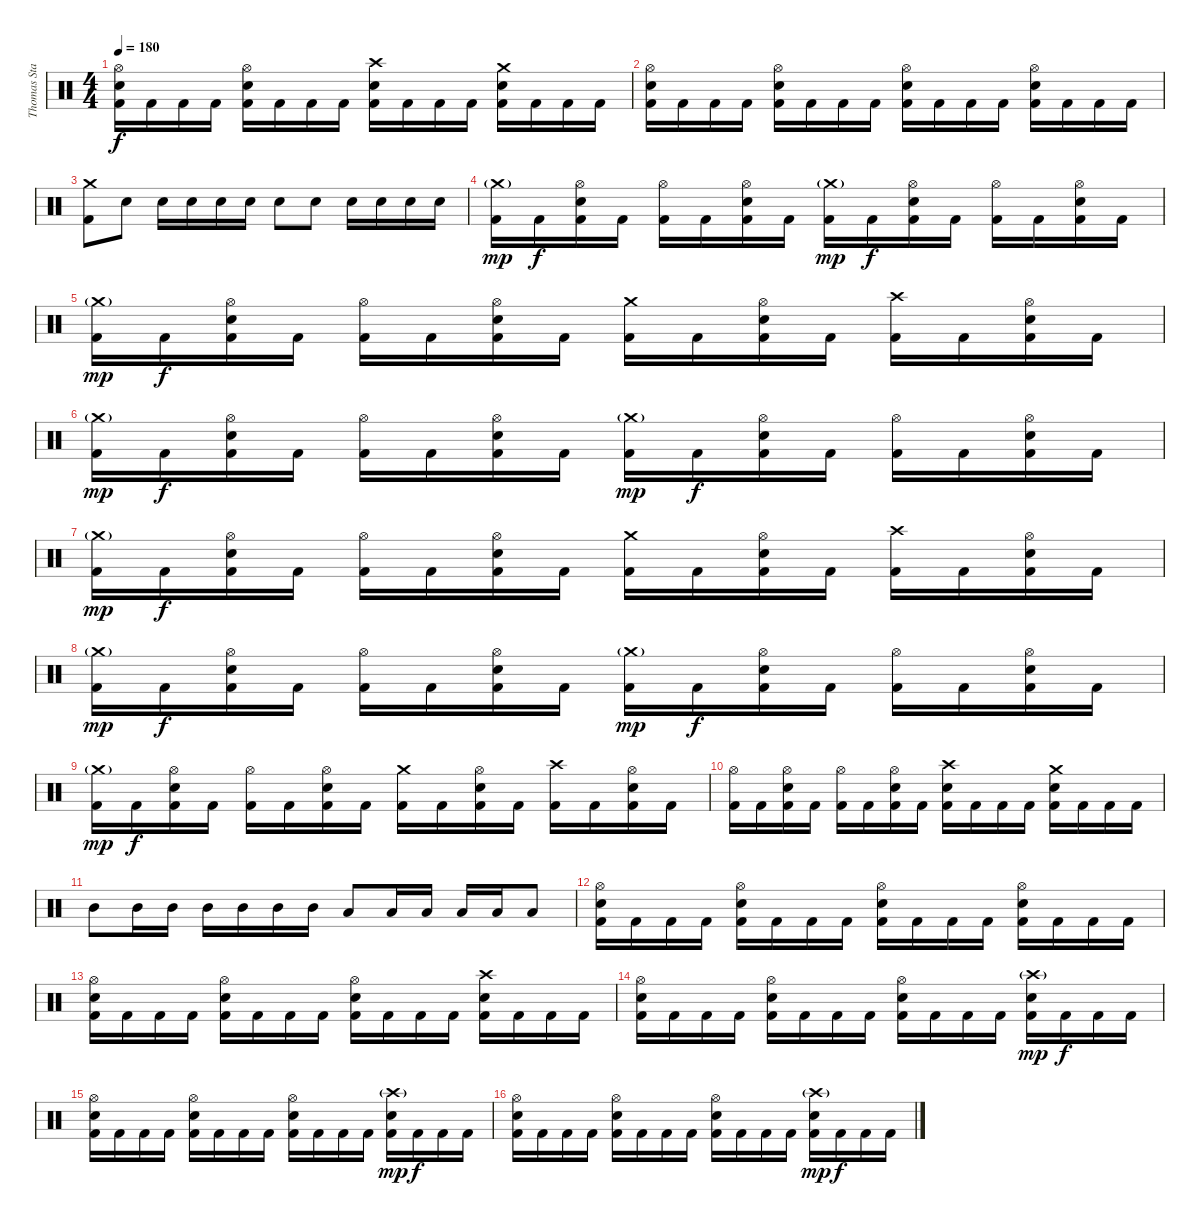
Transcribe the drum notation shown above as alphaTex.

\track ("Thomas Stauch" "Thomas Sta") {instrument percussion}
\staff {score}
\articulation defaults
\ts (4 4)
\tempo 180
\clef neutral
\ks c
("Hi-Hat (open)" "Electric Snare (hit)" "Kick (hit) 2").16{dy f} "Kick (hit) 2".16 "Kick (hit) 2".16 "Kick (hit) 2".16 ("Hi-Hat (open)" "Electric Snare (hit)" "Kick (hit) 2").16 "Kick (hit) 2".16 "Kick (hit) 2".16 "Kick (hit) 2".16 ("Crash high (hit)" "Electric Snare (hit)" "Kick (hit) 2").16 "Kick (hit) 2".16 "Kick (hit) 2".16 "Kick (hit) 2".16 ("Crash medium (hit)" "Electric Snare (hit)" "Kick (hit) 2").16 "Kick (hit) 2".16 "Kick (hit) 2".16 "Kick (hit) 2".16 |
("Hi-Hat (open)" "Electric Snare (hit)" "Kick (hit) 2").16 "Kick (hit) 2".16 "Kick (hit) 2".16 "Kick (hit) 2".16 ("Hi-Hat (open)" "Electric Snare (hit)" "Kick (hit) 2").16 "Kick (hit) 2".16 "Kick (hit) 2".16 "Kick (hit) 2".16 ("Hi-Hat (open)" "Electric Snare (hit)" "Kick (hit) 2").16 "Kick (hit) 2".16 "Kick (hit) 2".16 "Kick (hit) 2".16 ("Hi-Hat (open)" "Electric Snare (hit)" "Kick (hit) 2").16 "Kick (hit) 2".16 "Kick (hit) 2".16 "Kick (hit) 2".16 |
("Crash medium (hit)" "Kick (hit) 2").8 "Electric Snare (hit)".8 "Electric Snare (hit)".16 "Electric Snare (hit)".16 "Electric Snare (hit)".16 "Electric Snare (hit)".16 "Electric Snare (hit)".8 "Electric Snare (hit)".8 "Electric Snare (hit)".16 "Electric Snare (hit)".16 "Electric Snare (hit)".16 "Electric Snare (hit)".16 |
("Crash medium (hit)"{g} "Kick (hit) 2").16{dy mp} "Kick (hit) 2".16{dy f} ("Hi-Hat (open)" "Electric Snare (hit)" "Kick (hit) 2").16 "Kick (hit) 2".16 ("Hi-Hat (open)" "Kick (hit) 2").16 "Kick (hit) 2".16 ("Hi-Hat (open)" "Electric Snare (hit)" "Kick (hit) 2").16 "Kick (hit) 2".16 ("Crash medium (hit)"{g} "Kick (hit) 2").16{dy mp} "Kick (hit) 2".16{dy f} ("Hi-Hat (open)" "Electric Snare (hit)" "Kick (hit) 2").16 "Kick (hit) 2".16 ("Hi-Hat (open)" "Kick (hit) 2").16 "Kick (hit) 2".16 ("Hi-Hat (open)" "Electric Snare (hit)" "Kick (hit) 2").16 "Kick (hit) 2".16 |
("Crash medium (hit)"{g} "Kick (hit) 2").16{dy mp} "Kick (hit) 2".16{dy f} ("Hi-Hat (open)" "Electric Snare (hit)" "Kick (hit) 2").16 "Kick (hit) 2".16 ("Hi-Hat (open)" "Kick (hit) 2").16 "Kick (hit) 2".16 ("Hi-Hat (open)" "Electric Snare (hit)" "Kick (hit) 2").16 "Kick (hit) 2".16 ("Crash medium (hit)" "Kick (hit) 2").16 "Kick (hit) 2".16 ("Hi-Hat (open)" "Electric Snare (hit)" "Kick (hit) 2").16 "Kick (hit) 2".16 ("Crash high (hit)" "Kick (hit) 2").16 "Kick (hit) 2".16 ("Hi-Hat (open)" "Electric Snare (hit)" "Kick (hit) 2").16 "Kick (hit) 2".16 |
("Crash medium (hit)"{g} "Kick (hit) 2").16{dy mp} "Kick (hit) 2".16{dy f} ("Hi-Hat (open)" "Electric Snare (hit)" "Kick (hit) 2").16 "Kick (hit) 2".16 ("Hi-Hat (open)" "Kick (hit) 2").16 "Kick (hit) 2".16 ("Hi-Hat (open)" "Electric Snare (hit)" "Kick (hit) 2").16 "Kick (hit) 2".16 ("Crash medium (hit)"{g} "Kick (hit) 2").16{dy mp} "Kick (hit) 2".16{dy f} ("Hi-Hat (open)" "Electric Snare (hit)" "Kick (hit) 2").16 "Kick (hit) 2".16 ("Hi-Hat (open)" "Kick (hit) 2").16 "Kick (hit) 2".16 ("Hi-Hat (open)" "Electric Snare (hit)" "Kick (hit) 2").16 "Kick (hit) 2".16 |
("Crash medium (hit)"{g} "Kick (hit) 2").16{dy mp} "Kick (hit) 2".16{dy f} ("Hi-Hat (open)" "Electric Snare (hit)" "Kick (hit) 2").16 "Kick (hit) 2".16 ("Hi-Hat (open)" "Kick (hit) 2").16 "Kick (hit) 2".16 ("Hi-Hat (open)" "Electric Snare (hit)" "Kick (hit) 2").16 "Kick (hit) 2".16 ("Crash medium (hit)" "Kick (hit) 2").16 "Kick (hit) 2".16 ("Hi-Hat (open)" "Electric Snare (hit)" "Kick (hit) 2").16 "Kick (hit) 2".16 ("Crash high (hit)" "Kick (hit) 2").16 "Kick (hit) 2".16 ("Hi-Hat (open)" "Electric Snare (hit)" "Kick (hit) 2").16 "Kick (hit) 2".16 |
("Crash medium (hit)"{g} "Kick (hit) 2").16{dy mp} "Kick (hit) 2".16{dy f} ("Hi-Hat (open)" "Electric Snare (hit)" "Kick (hit) 2").16 "Kick (hit) 2".16 ("Hi-Hat (open)" "Kick (hit) 2").16 "Kick (hit) 2".16 ("Hi-Hat (open)" "Electric Snare (hit)" "Kick (hit) 2").16 "Kick (hit) 2".16 ("Crash medium (hit)"{g} "Kick (hit) 2").16{dy mp} "Kick (hit) 2".16{dy f} ("Hi-Hat (open)" "Electric Snare (hit)" "Kick (hit) 2").16 "Kick (hit) 2".16 ("Hi-Hat (open)" "Kick (hit) 2").16 "Kick (hit) 2".16 ("Hi-Hat (open)" "Electric Snare (hit)" "Kick (hit) 2").16 "Kick (hit) 2".16 |
("Crash medium (hit)"{g} "Kick (hit) 2").16{dy mp} "Kick (hit) 2".16{dy f} ("Hi-Hat (open)" "Electric Snare (hit)" "Kick (hit) 2").16 "Kick (hit) 2".16 ("Hi-Hat (open)" "Kick (hit) 2").16 "Kick (hit) 2".16 ("Hi-Hat (open)" "Electric Snare (hit)" "Kick (hit) 2").16 "Kick (hit) 2".16 ("Crash medium (hit)" "Kick (hit) 2").16 "Kick (hit) 2".16 ("Hi-Hat (open)" "Electric Snare (hit)" "Kick (hit) 2").16 "Kick (hit) 2".16 ("Crash high (hit)" "Kick (hit) 2").16 "Kick (hit) 2".16 ("Hi-Hat (open)" "Electric Snare (hit)" "Kick (hit) 2").16 "Kick (hit) 2".16 |
("Hi-Hat (open)" "Kick (hit) 2").16 "Kick (hit) 2".16 ("Hi-Hat (open)" "Electric Snare (hit)" "Kick (hit) 2").16 "Kick (hit) 2".16 ("Hi-Hat (open)" "Kick (hit) 2").16 "Kick (hit) 2".16 ("Hi-Hat (open)" "Electric Snare (hit)" "Kick (hit) 2").16 "Kick (hit) 2".16 ("Crash high (hit)" "Electric Snare (hit)" "Kick (hit) 2").16 "Kick (hit) 2".16 "Kick (hit) 2".16 "Kick (hit) 2".16 ("Crash medium (hit)" "Electric Snare (hit)" "Kick (hit) 2").16 "Kick (hit) 2".16 "Kick (hit) 2".16 "Kick (hit) 2".16 |
"Mid Tom (hit)".8 "Mid Tom (hit)".16 "Mid Tom (hit)".16 "Mid Tom (hit)".16 "Mid Tom (hit)".16 "Mid Tom (hit)".16 "Mid Tom (hit)".16 "Low Tom (hit)".8 "Low Tom (hit)".16 "Low Tom (hit)".16 "Low Tom (hit)".16 "Low Tom (hit)".16 "Low Tom (hit)".8 |
("Hi-Hat (open)" "Electric Snare (hit)" "Kick (hit) 2").16 "Kick (hit) 2".16 "Kick (hit) 2".16 "Kick (hit) 2".16 ("Hi-Hat (open)" "Electric Snare (hit)" "Kick (hit) 2").16 "Kick (hit) 2".16 "Kick (hit) 2".16 "Kick (hit) 2".16 ("Hi-Hat (open)" "Electric Snare (hit)" "Kick (hit) 2").16 "Kick (hit) 2".16 "Kick (hit) 2".16 "Kick (hit) 2".16 ("Hi-Hat (open)" "Electric Snare (hit)" "Kick (hit) 2").16 "Kick (hit) 2".16 "Kick (hit) 2".16 "Kick (hit) 2".16 |
("Hi-Hat (open)" "Electric Snare (hit)" "Kick (hit) 2").16 "Kick (hit) 2".16 "Kick (hit) 2".16 "Kick (hit) 2".16 ("Hi-Hat (open)" "Electric Snare (hit)" "Kick (hit) 2").16 "Kick (hit) 2".16 "Kick (hit) 2".16 "Kick (hit) 2".16 ("Hi-Hat (open)" "Electric Snare (hit)" "Kick (hit) 2").16 "Kick (hit) 2".16 "Kick (hit) 2".16 "Kick (hit) 2".16 ("Crash high (hit)" "Electric Snare (hit)" "Kick (hit) 2").16 "Kick (hit) 2".16 "Kick (hit) 2".16 "Kick (hit) 2".16 |
("Hi-Hat (open)" "Electric Snare (hit)" "Kick (hit) 2").16 "Kick (hit) 2".16 "Kick (hit) 2".16 "Kick (hit) 2".16 ("Hi-Hat (open)" "Electric Snare (hit)" "Kick (hit) 2").16 "Kick (hit) 2".16 "Kick (hit) 2".16 "Kick (hit) 2".16 ("Hi-Hat (open)" "Electric Snare (hit)" "Kick (hit) 2").16 "Kick (hit) 2".16 "Kick (hit) 2".16 "Kick (hit) 2".16 ("Crash high (hit)"{g} "Electric Snare (hit)" "Kick (hit) 2").16{dy mp} "Kick (hit) 2".16{dy f} "Kick (hit) 2".16 "Kick (hit) 2".16 |
("Hi-Hat (open)" "Electric Snare (hit)" "Kick (hit) 2").16 "Kick (hit) 2".16 "Kick (hit) 2".16 "Kick (hit) 2".16 ("Hi-Hat (open)" "Electric Snare (hit)" "Kick (hit) 2").16 "Kick (hit) 2".16 "Kick (hit) 2".16 "Kick (hit) 2".16 ("Hi-Hat (open)" "Electric Snare (hit)" "Kick (hit) 2").16 "Kick (hit) 2".16 "Kick (hit) 2".16 "Kick (hit) 2".16 ("Crash high (hit)"{g} "Electric Snare (hit)" "Kick (hit) 2").16{dy mp} "Kick (hit) 2".16{dy f} "Kick (hit) 2".16 "Kick (hit) 2".16 |
("Hi-Hat (open)" "Electric Snare (hit)" "Kick (hit) 2").16 "Kick (hit) 2".16 "Kick (hit) 2".16 "Kick (hit) 2".16 ("Hi-Hat (open)" "Electric Snare (hit)" "Kick (hit) 2").16 "Kick (hit) 2".16 "Kick (hit) 2".16 "Kick (hit) 2".16 ("Hi-Hat (open)" "Electric Snare (hit)" "Kick (hit) 2").16 "Kick (hit) 2".16 "Kick (hit) 2".16 "Kick (hit) 2".16 ("Crash high (hit)"{g} "Electric Snare (hit)" "Kick (hit) 2").16{dy mp} "Kick (hit) 2".16{dy f} "Kick (hit) 2".16 "Kick (hit) 2".16
